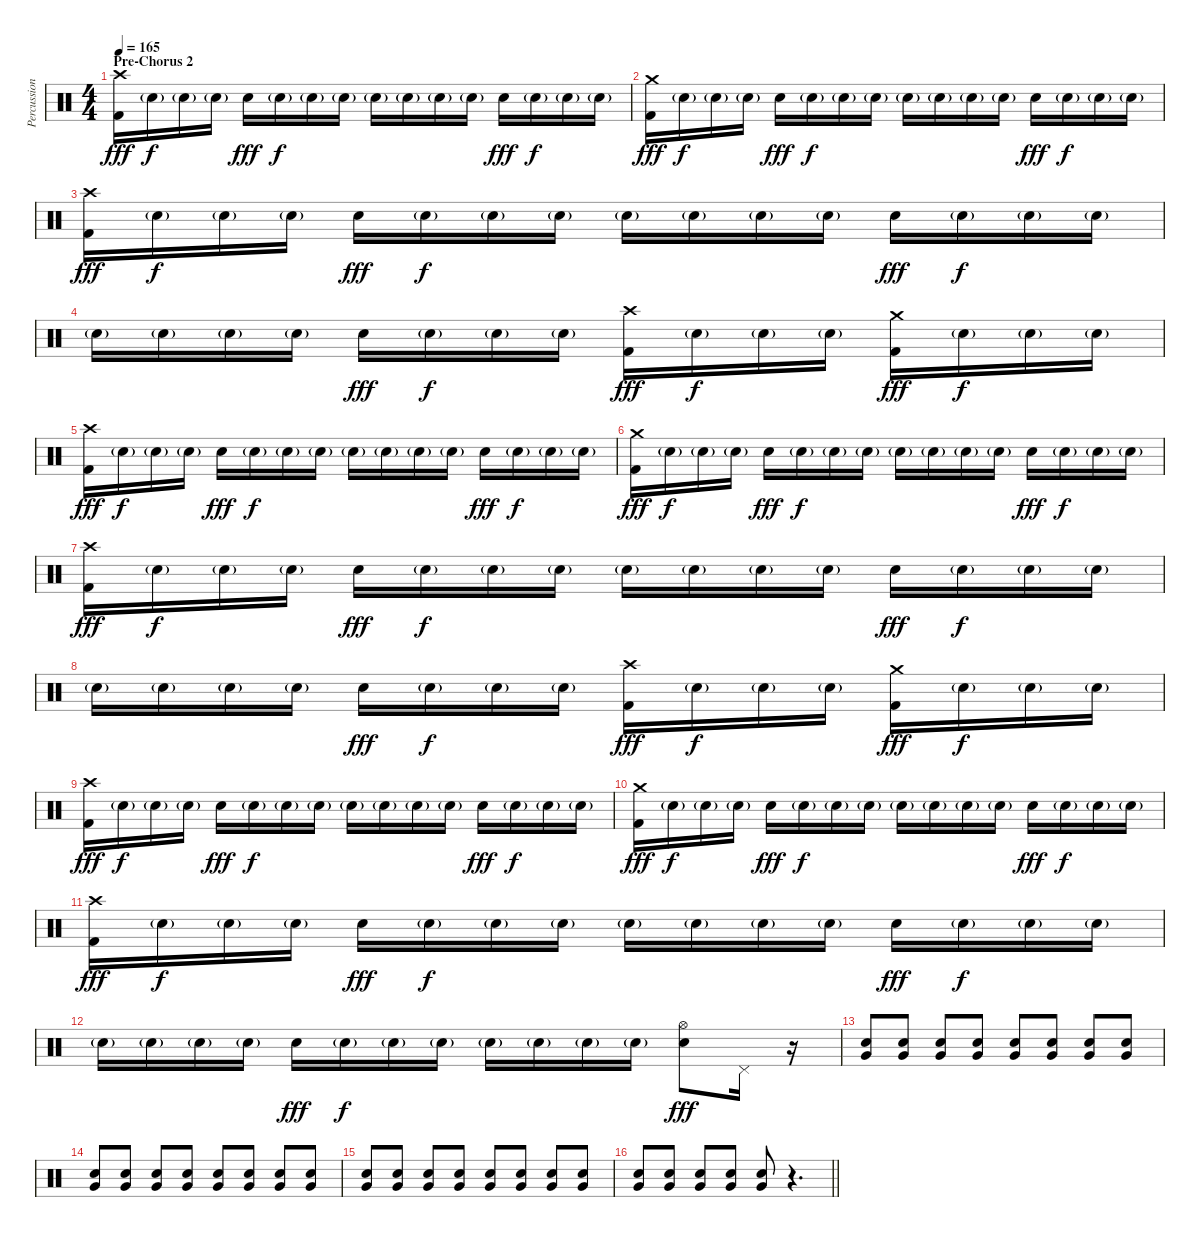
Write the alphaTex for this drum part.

\track ("Percussion" "Percussion") {instrument percussion}
\staff {score}
\articulation defaults
\ts (4 4)
\section ("" "Pre-Chorus 2")
\tempo 165
\clef neutral
\ks c
("Crash high (hit)" "Kick (hit) 2").16{dy fff} "Electric Snare (hit)"{g}.16{dy f} "Electric Snare (hit)"{g}.16 "Electric Snare (hit)"{g}.16 "Electric Snare (hit)".16{dy fff} "Electric Snare (hit)"{g}.16{dy f} "Electric Snare (hit)"{g}.16 "Electric Snare (hit)"{g}.16 "Electric Snare (hit)"{g}.16 "Electric Snare (hit)"{g}.16 "Electric Snare (hit)"{g}.16 "Electric Snare (hit)"{g}.16 "Electric Snare (hit)".16{dy fff} "Electric Snare (hit)"{g}.16{dy f} "Electric Snare (hit)"{g}.16 "Electric Snare (hit)"{g}.16 |
("Crash medium (hit)" "Kick (hit) 2").16{dy fff} "Electric Snare (hit)"{g}.16{dy f} "Electric Snare (hit)"{g}.16 "Electric Snare (hit)"{g}.16 "Electric Snare (hit)".16{dy fff} "Electric Snare (hit)"{g}.16{dy f} "Electric Snare (hit)"{g}.16 "Electric Snare (hit)"{g}.16 "Electric Snare (hit)"{g}.16 "Electric Snare (hit)"{g}.16 "Electric Snare (hit)"{g}.16 "Electric Snare (hit)"{g}.16 "Electric Snare (hit)".16{dy fff} "Electric Snare (hit)"{g}.16{dy f} "Electric Snare (hit)"{g}.16 "Electric Snare (hit)"{g}.16 |
("Crash high (hit)" "Kick (hit) 2").16{dy fff} "Electric Snare (hit)"{g}.16{dy f} "Electric Snare (hit)"{g}.16 "Electric Snare (hit)"{g}.16 "Electric Snare (hit)".16{dy fff} "Electric Snare (hit)"{g}.16{dy f} "Electric Snare (hit)"{g}.16 "Electric Snare (hit)"{g}.16 "Electric Snare (hit)"{g}.16 "Electric Snare (hit)"{g}.16 "Electric Snare (hit)"{g}.16 "Electric Snare (hit)"{g}.16 "Electric Snare (hit)".16{dy fff} "Electric Snare (hit)"{g}.16{dy f} "Electric Snare (hit)"{g}.16 "Electric Snare (hit)"{g}.16 |
"Electric Snare (hit)"{g}.16 "Electric Snare (hit)"{g}.16 "Electric Snare (hit)"{g}.16 "Electric Snare (hit)"{g}.16 "Electric Snare (hit)".16{dy fff} "Electric Snare (hit)"{g}.16{dy f} "Electric Snare (hit)"{g}.16 "Electric Snare (hit)"{g}.16 ("Crash high (hit)" "Kick (hit) 2").16{dy fff} "Electric Snare (hit)"{g}.16{dy f} "Electric Snare (hit)"{g}.16 "Electric Snare (hit)"{g}.16 ("Crash medium (hit)" "Kick (hit) 2").16{dy fff} "Electric Snare (hit)"{g}.16{dy f} "Electric Snare (hit)"{g}.16 "Electric Snare (hit)"{g}.16 |
("Crash high (hit)" "Kick (hit) 2").16{dy fff} "Electric Snare (hit)"{g}.16{dy f} "Electric Snare (hit)"{g}.16 "Electric Snare (hit)"{g}.16 "Electric Snare (hit)".16{dy fff} "Electric Snare (hit)"{g}.16{dy f} "Electric Snare (hit)"{g}.16 "Electric Snare (hit)"{g}.16 "Electric Snare (hit)"{g}.16 "Electric Snare (hit)"{g}.16 "Electric Snare (hit)"{g}.16 "Electric Snare (hit)"{g}.16 "Electric Snare (hit)".16{dy fff} "Electric Snare (hit)"{g}.16{dy f} "Electric Snare (hit)"{g}.16 "Electric Snare (hit)"{g}.16 |
("Crash medium (hit)" "Kick (hit) 2").16{dy fff} "Electric Snare (hit)"{g}.16{dy f} "Electric Snare (hit)"{g}.16 "Electric Snare (hit)"{g}.16 "Electric Snare (hit)".16{dy fff} "Electric Snare (hit)"{g}.16{dy f} "Electric Snare (hit)"{g}.16 "Electric Snare (hit)"{g}.16 "Electric Snare (hit)"{g}.16 "Electric Snare (hit)"{g}.16 "Electric Snare (hit)"{g}.16 "Electric Snare (hit)"{g}.16 "Electric Snare (hit)".16{dy fff} "Electric Snare (hit)"{g}.16{dy f} "Electric Snare (hit)"{g}.16 "Electric Snare (hit)"{g}.16 |
("Crash high (hit)" "Kick (hit) 2").16{dy fff} "Electric Snare (hit)"{g}.16{dy f} "Electric Snare (hit)"{g}.16 "Electric Snare (hit)"{g}.16 "Electric Snare (hit)".16{dy fff} "Electric Snare (hit)"{g}.16{dy f} "Electric Snare (hit)"{g}.16 "Electric Snare (hit)"{g}.16 "Electric Snare (hit)"{g}.16 "Electric Snare (hit)"{g}.16 "Electric Snare (hit)"{g}.16 "Electric Snare (hit)"{g}.16 "Electric Snare (hit)".16{dy fff} "Electric Snare (hit)"{g}.16{dy f} "Electric Snare (hit)"{g}.16 "Electric Snare (hit)"{g}.16 |
"Electric Snare (hit)"{g}.16 "Electric Snare (hit)"{g}.16 "Electric Snare (hit)"{g}.16 "Electric Snare (hit)"{g}.16 "Electric Snare (hit)".16{dy fff} "Electric Snare (hit)"{g}.16{dy f} "Electric Snare (hit)"{g}.16 "Electric Snare (hit)"{g}.16 ("Crash high (hit)" "Kick (hit) 2").16{dy fff} "Electric Snare (hit)"{g}.16{dy f} "Electric Snare (hit)"{g}.16 "Electric Snare (hit)"{g}.16 ("Crash medium (hit)" "Kick (hit) 2").16{dy fff} "Electric Snare (hit)"{g}.16{dy f} "Electric Snare (hit)"{g}.16 "Electric Snare (hit)"{g}.16 |
("Crash high (hit)" "Kick (hit) 2").16{dy fff} "Electric Snare (hit)"{g}.16{dy f} "Electric Snare (hit)"{g}.16 "Electric Snare (hit)"{g}.16 "Electric Snare (hit)".16{dy fff} "Electric Snare (hit)"{g}.16{dy f} "Electric Snare (hit)"{g}.16 "Electric Snare (hit)"{g}.16 "Electric Snare (hit)"{g}.16 "Electric Snare (hit)"{g}.16 "Electric Snare (hit)"{g}.16 "Electric Snare (hit)"{g}.16 "Electric Snare (hit)".16{dy fff} "Electric Snare (hit)"{g}.16{dy f} "Electric Snare (hit)"{g}.16 "Electric Snare (hit)"{g}.16 |
("Crash medium (hit)" "Kick (hit) 2").16{dy fff} "Electric Snare (hit)"{g}.16{dy f} "Electric Snare (hit)"{g}.16 "Electric Snare (hit)"{g}.16 "Electric Snare (hit)".16{dy fff} "Electric Snare (hit)"{g}.16{dy f} "Electric Snare (hit)"{g}.16 "Electric Snare (hit)"{g}.16 "Electric Snare (hit)"{g}.16 "Electric Snare (hit)"{g}.16 "Electric Snare (hit)"{g}.16 "Electric Snare (hit)"{g}.16 "Electric Snare (hit)".16{dy fff} "Electric Snare (hit)"{g}.16{dy f} "Electric Snare (hit)"{g}.16 "Electric Snare (hit)"{g}.16 |
("Crash high (hit)" "Kick (hit) 2").16{dy fff} "Electric Snare (hit)"{g}.16{dy f} "Electric Snare (hit)"{g}.16 "Electric Snare (hit)"{g}.16 "Electric Snare (hit)".16{dy fff} "Electric Snare (hit)"{g}.16{dy f} "Electric Snare (hit)"{g}.16 "Electric Snare (hit)"{g}.16 "Electric Snare (hit)"{g}.16 "Electric Snare (hit)"{g}.16 "Electric Snare (hit)"{g}.16 "Electric Snare (hit)"{g}.16 "Electric Snare (hit)".16{dy fff} "Electric Snare (hit)"{g}.16{dy f} "Electric Snare (hit)"{g}.16 "Electric Snare (hit)"{g}.16 |
"Electric Snare (hit)"{g}.16 "Electric Snare (hit)"{g}.16 "Electric Snare (hit)"{g}.16 "Electric Snare (hit)"{g}.16 "Electric Snare (hit)".16{dy fff} "Electric Snare (hit)"{g}.16{dy f} "Electric Snare (hit)"{g}.16 "Electric Snare (hit)"{g}.16 "Electric Snare (hit)"{g}.16 "Electric Snare (hit)"{g}.16 "Electric Snare (hit)"{g}.16 "Electric Snare (hit)"{g}.16 ("Hi-Hat (open)" "Electric Snare (hit)").8{dy fff} "Pedal Hi-Hat (hit)".16 r.16{volume 10} |
("Very Low Tom (hit)" "Electric Snare (hit)").8{volume 16} ("Very Low Tom (hit)" "Electric Snare (hit)").8 ("Very Low Tom (hit)" "Electric Snare (hit)").8 ("Very Low Tom (hit)" "Electric Snare (hit)").8 ("Very Low Tom (hit)" "Electric Snare (hit)").8 ("Very Low Tom (hit)" "Electric Snare (hit)").8 ("Very Low Tom (hit)" "Electric Snare (hit)").8 ("Very Low Tom (hit)" "Electric Snare (hit)").8 |
("Very Low Tom (hit)" "Electric Snare (hit)").8 ("Very Low Tom (hit)" "Electric Snare (hit)").8 ("Very Low Tom (hit)" "Electric Snare (hit)").8 ("Very Low Tom (hit)" "Electric Snare (hit)").8 ("Very Low Tom (hit)" "Electric Snare (hit)").8 ("Very Low Tom (hit)" "Electric Snare (hit)").8 ("Very Low Tom (hit)" "Electric Snare (hit)").8 ("Very Low Tom (hit)" "Electric Snare (hit)").8 |
("Very Low Tom (hit)" "Electric Snare (hit)").8 ("Very Low Tom (hit)" "Electric Snare (hit)").8 ("Very Low Tom (hit)" "Electric Snare (hit)").8 ("Very Low Tom (hit)" "Electric Snare (hit)").8 ("Very Low Tom (hit)" "Electric Snare (hit)").8 ("Very Low Tom (hit)" "Electric Snare (hit)").8 ("Very Low Tom (hit)" "Electric Snare (hit)").8 ("Very Low Tom (hit)" "Electric Snare (hit)").8 |
\barLineRight lightlight
("Very Low Tom (hit)" "Electric Snare (hit)").8 ("Very Low Tom (hit)" "Electric Snare (hit)").8 ("Very Low Tom (hit)" "Electric Snare (hit)").8 ("Very Low Tom (hit)" "Electric Snare (hit)").8 ("Very Low Tom (hit)" "Electric Snare (hit)").8 r.4{d}
